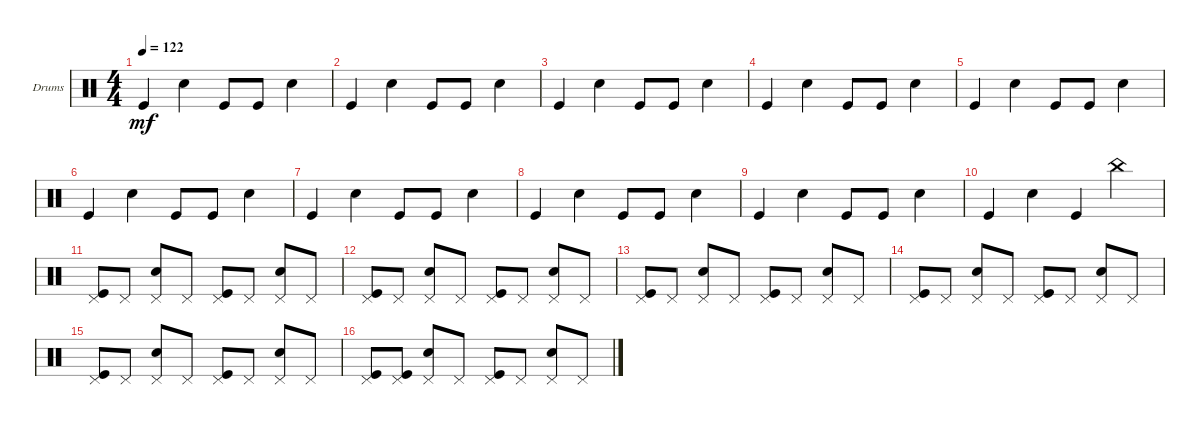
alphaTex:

\defaultSystemsLayout 4
\bracketExtendMode groupsimilarinstruments
\firstSystemTrackNameOrientation horizontal
\otherSystemsTrackNameOrientation horizontal
\track ("Drums" "Drums") {instrument percussion}
\staff {score}
\articulation defaults
\ts (4 4)
\tempo 122
\clef neutral
\scale
0.472222
\ks c "Kick (hit)".4{dy mf} "Snare (hit) 2".4 "Kick (hit)".8 "Kick (hit)".8 "Snare (hit) 2".4
|
\scale
0.263889 "Kick (hit)".4 "Snare (hit) 2".4 "Kick (hit)".8 "Kick (hit)".8 "Snare (hit) 2".4 |
\scale
0.263889 "Kick (hit)".4 "Snare (hit) 2".4 "Kick (hit)".8 "Kick (hit)".8 "Snare (hit) 2".4 |
\scale
0.333333 "Kick (hit)".4 "Snare (hit) 2".4 "Kick (hit)".8 "Kick (hit)".8 "Snare (hit) 2".4 |
\scale
0.333333 "Kick (hit)".4 "Snare (hit) 2".4 "Kick (hit)".8 "Kick (hit)".8 "Snare (hit) 2".4 |
\scale
0.333333 "Kick (hit)".4 "Snare (hit) 2".4 "Kick (hit)".8 "Kick (hit)".8 "Snare (hit) 2".4 |
\scale
0.333333 "Kick (hit)".4 "Snare (hit) 2".4 "Kick (hit)".8 "Kick (hit)".8 "Snare (hit) 2".4 |
\scale
0.333333 "Kick (hit)".4 "Snare (hit) 2".4 "Kick (hit)".8 "Kick (hit)".8 "Snare (hit) 2".4 |
\scale
0.333333 "Kick (hit)".4 "Snare (hit) 2".4 "Kick (hit)".8 "Kick (hit)".8 "Snare (hit) 2".4 |
\scale
0.333333 "Kick (hit)".4 "Snare (hit) 2".4 "Kick (hit)".4 "China (hit)".4 |
\scale
0.333333 ("Pedal Hi-Hat (hit)" "Kick (hit)").8 "Pedal Hi-Hat (hit)".8 ("Pedal Hi-Hat (hit)" "Snare (hit) 2").8 "Pedal Hi-Hat (hit)".8 ("Pedal Hi-Hat (hit)" "Kick (hit)").8 "Pedal Hi-Hat (hit)".8 ("Pedal Hi-Hat (hit)" "Snare (hit) 2").8 "Pedal Hi-Hat (hit)".8 |
\scale
0.333333 ("Pedal Hi-Hat (hit)" "Kick (hit)").8 "Pedal Hi-Hat (hit)".8 ("Pedal Hi-Hat (hit)" "Snare (hit) 2").8 "Pedal Hi-Hat (hit)".8 ("Pedal Hi-Hat (hit)" "Kick (hit)").8 "Pedal Hi-Hat (hit)".8 ("Pedal Hi-Hat (hit)" "Snare (hit) 2").8 "Pedal Hi-Hat (hit)".8 |
\scale
0.333333 ("Pedal Hi-Hat (hit)" "Kick (hit)").8 "Pedal Hi-Hat (hit)".8 ("Pedal Hi-Hat (hit)" "Snare (hit) 2").8 "Pedal Hi-Hat (hit)".8 ("Pedal Hi-Hat (hit)" "Kick (hit)").8 "Pedal Hi-Hat (hit)".8 ("Pedal Hi-Hat (hit)" "Snare (hit) 2").8 "Pedal Hi-Hat (hit)".8 |
\scale
0.333333 ("Pedal Hi-Hat (hit)" "Kick (hit)").8 "Pedal Hi-Hat (hit)".8 ("Pedal Hi-Hat (hit)" "Snare (hit) 2").8 "Pedal Hi-Hat (hit)".8 ("Pedal Hi-Hat (hit)" "Kick (hit)").8 "Pedal Hi-Hat (hit)".8 ("Pedal Hi-Hat (hit)" "Snare (hit) 2").8 "Pedal Hi-Hat (hit)".8 |
\scale
0.333333 ("Pedal Hi-Hat (hit)" "Kick (hit)").8 "Pedal Hi-Hat (hit)".8 ("Pedal Hi-Hat (hit)" "Snare (hit) 2").8 "Pedal Hi-Hat (hit)".8 ("Pedal Hi-Hat (hit)" "Kick (hit)").8 "Pedal Hi-Hat (hit)".8 ("Pedal Hi-Hat (hit)" "Snare (hit) 2").8 "Pedal Hi-Hat (hit)".8 |
\scale
0.333333 ("Pedal Hi-Hat (hit)" "Kick (hit)").8 ("Pedal Hi-Hat (hit)" "Kick (hit)").8 ("Pedal Hi-Hat (hit)" "Snare (hit) 2").8 "Pedal Hi-Hat (hit)".8 ("Pedal Hi-Hat (hit)" "Kick (hit)").8 "Pedal Hi-Hat (hit)".8 ("Pedal Hi-Hat (hit)" "Snare (hit) 2").8 "Pedal Hi-Hat (hit)".8
